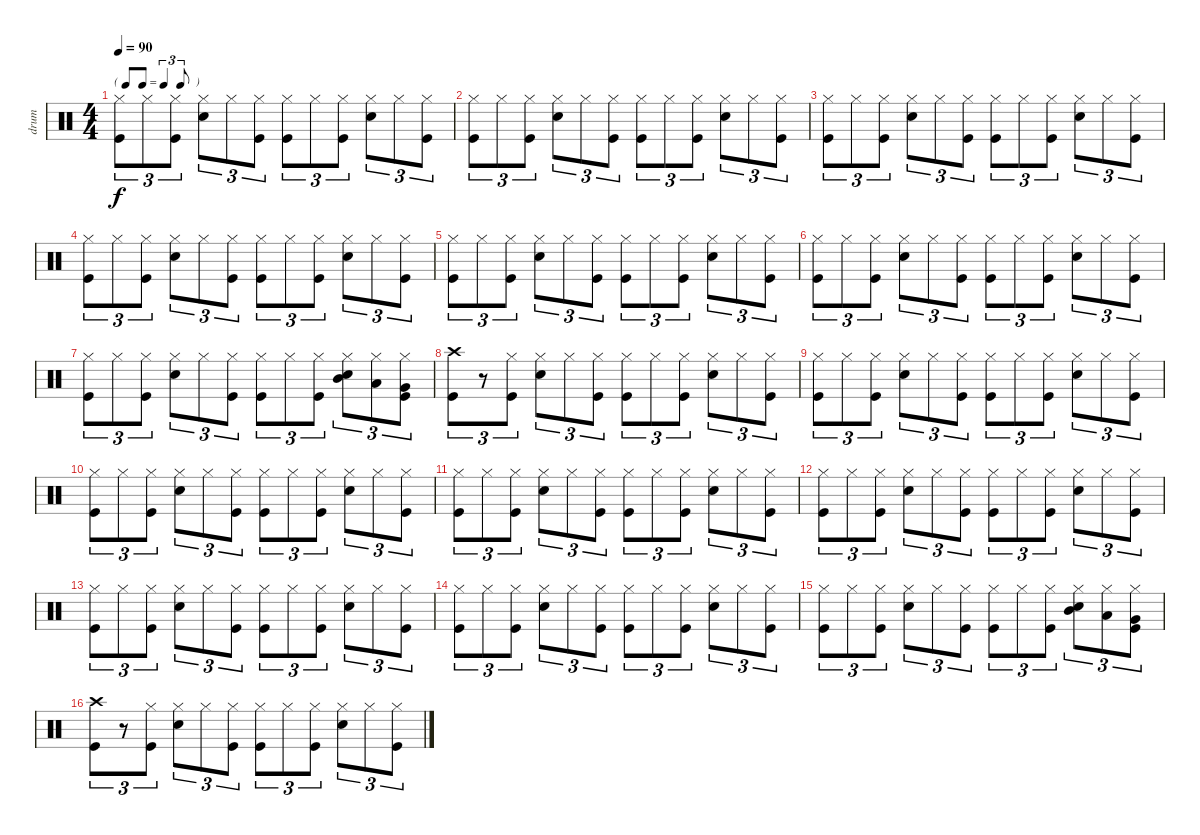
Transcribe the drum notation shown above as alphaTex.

\track ("drum" "drum") {instrument percussion}
\staff {score}
\articulation defaults
\ts (4 4)
\tf triplet8th
\tempo 90
\clef neutral
\ks c
("Hi-Hat (closed)" "Kick (hit)").8{tu (3 2) dy f} "Hi-Hat (closed)".8{tu (3 2)} ("Hi-Hat (closed)" "Kick (hit)").8{tu (3 2)} ("Hi-Hat (closed)" "Snare (hit) 2").8{tu (3 2)} "Hi-Hat (closed)".8{tu (3 2)} ("Hi-Hat (closed)" "Kick (hit)").8{tu (3 2)} ("Hi-Hat (closed)" "Kick (hit)").8{tu (3 2)} "Hi-Hat (closed)".8{tu (3 2)} ("Hi-Hat (closed)" "Kick (hit)").8{tu (3 2)} ("Hi-Hat (closed)" "Snare (hit) 2").8{tu (3 2)} "Hi-Hat (closed)".8{tu (3 2)} ("Hi-Hat (closed)" "Kick (hit)").8{tu (3 2)} |
("Hi-Hat (closed)" "Kick (hit)").8{tu (3 2)} "Hi-Hat (closed)".8{tu (3 2)} ("Hi-Hat (closed)" "Kick (hit)").8{tu (3 2)} ("Hi-Hat (closed)" "Snare (hit) 2").8{tu (3 2)} "Hi-Hat (closed)".8{tu (3 2)} ("Hi-Hat (closed)" "Kick (hit)").8{tu (3 2)} ("Hi-Hat (closed)" "Kick (hit)").8{tu (3 2)} "Hi-Hat (closed)".8{tu (3 2)} ("Hi-Hat (closed)" "Kick (hit)").8{tu (3 2)} ("Hi-Hat (closed)" "Snare (hit) 2").8{tu (3 2)} "Hi-Hat (closed)".8{tu (3 2)} ("Hi-Hat (closed)" "Kick (hit)").8{tu (3 2)} |
("Hi-Hat (closed)" "Kick (hit)").8{tu (3 2)} "Hi-Hat (closed)".8{tu (3 2)} ("Hi-Hat (closed)" "Kick (hit)").8{tu (3 2)} ("Hi-Hat (closed)" "Snare (hit) 2").8{tu (3 2)} "Hi-Hat (closed)".8{tu (3 2)} ("Hi-Hat (closed)" "Kick (hit)").8{tu (3 2)} ("Hi-Hat (closed)" "Kick (hit)").8{tu (3 2)} "Hi-Hat (closed)".8{tu (3 2)} ("Hi-Hat (closed)" "Kick (hit)").8{tu (3 2)} ("Hi-Hat (closed)" "Snare (hit) 2").8{tu (3 2)} "Hi-Hat (closed)".8{tu (3 2)} ("Hi-Hat (closed)" "Kick (hit)").8{tu (3 2)} |
("Hi-Hat (closed)" "Kick (hit)").8{tu (3 2)} "Hi-Hat (closed)".8{tu (3 2)} ("Hi-Hat (closed)" "Kick (hit)").8{tu (3 2)} ("Hi-Hat (closed)" "Snare (hit) 2").8{tu (3 2)} "Hi-Hat (closed)".8{tu (3 2)} ("Hi-Hat (closed)" "Kick (hit)").8{tu (3 2)} ("Hi-Hat (closed)" "Kick (hit)").8{tu (3 2)} "Hi-Hat (closed)".8{tu (3 2)} ("Hi-Hat (closed)" "Kick (hit)").8{tu (3 2)} ("Hi-Hat (closed)" "Snare (hit) 2").8{tu (3 2)} "Hi-Hat (closed)".8{tu (3 2)} ("Hi-Hat (closed)" "Kick (hit)").8{tu (3 2)} |
("Hi-Hat (closed)" "Kick (hit)").8{tu (3 2)} "Hi-Hat (closed)".8{tu (3 2)} ("Hi-Hat (closed)" "Kick (hit)").8{tu (3 2)} ("Hi-Hat (closed)" "Snare (hit) 2").8{tu (3 2)} "Hi-Hat (closed)".8{tu (3 2)} ("Hi-Hat (closed)" "Kick (hit)").8{tu (3 2)} ("Hi-Hat (closed)" "Kick (hit)").8{tu (3 2)} "Hi-Hat (closed)".8{tu (3 2)} ("Hi-Hat (closed)" "Kick (hit)").8{tu (3 2)} ("Hi-Hat (closed)" "Snare (hit) 2").8{tu (3 2)} "Hi-Hat (closed)".8{tu (3 2)} ("Hi-Hat (closed)" "Kick (hit)").8{tu (3 2)} |
("Hi-Hat (closed)" "Kick (hit)").8{tu (3 2)} "Hi-Hat (closed)".8{tu (3 2)} ("Hi-Hat (closed)" "Kick (hit)").8{tu (3 2)} ("Hi-Hat (closed)" "Snare (hit) 2").8{tu (3 2)} "Hi-Hat (closed)".8{tu (3 2)} ("Hi-Hat (closed)" "Kick (hit)").8{tu (3 2)} ("Hi-Hat (closed)" "Kick (hit)").8{tu (3 2)} "Hi-Hat (closed)".8{tu (3 2)} ("Hi-Hat (closed)" "Kick (hit)").8{tu (3 2)} ("Hi-Hat (closed)" "Snare (hit) 2").8{tu (3 2)} "Hi-Hat (closed)".8{tu (3 2)} ("Hi-Hat (closed)" "Kick (hit)").8{tu (3 2)} |
("Hi-Hat (closed)" "Kick (hit)").8{tu (3 2)} "Hi-Hat (closed)".8{tu (3 2)} ("Hi-Hat (closed)" "Kick (hit)").8{tu (3 2)} ("Hi-Hat (closed)" "Snare (hit) 2").8{tu (3 2)} "Hi-Hat (closed)".8{tu (3 2)} ("Hi-Hat (closed)" "Kick (hit)").8{tu (3 2)} ("Hi-Hat (closed)" "Kick (hit)").8{tu (3 2)} "Hi-Hat (closed)".8{tu (3 2)} ("Hi-Hat (closed)" "Kick (hit)").8{tu (3 2)} ("Hi-Hat (closed)" "Mid Tom (hit)" "Snare (hit) 2").8{tu (3 2)} ("Hi-Hat (closed)" "Low Tom (hit)").8{tu (3 2)} ("Hi-Hat (closed)" "Very Low Tom (hit)" "Kick (hit)").8{tu (3 2)} |
("Crash high (hit)" "Kick (hit)").8{tu (3 2)} r.8{tu (3 2)} ("Hi-Hat (closed)" "Kick (hit)").8{tu (3 2)} ("Hi-Hat (closed)" "Snare (hit) 2").8{tu (3 2)} "Hi-Hat (closed)".8{tu (3 2)} ("Hi-Hat (closed)" "Kick (hit)").8{tu (3 2)} ("Hi-Hat (closed)" "Kick (hit)").8{tu (3 2)} "Hi-Hat (closed)".8{tu (3 2)} ("Hi-Hat (closed)" "Kick (hit)").8{tu (3 2)} ("Hi-Hat (closed)" "Snare (hit) 2").8{tu (3 2)} "Hi-Hat (closed)".8{tu (3 2)} ("Hi-Hat (closed)" "Kick (hit)").8{tu (3 2)} |
("Hi-Hat (closed)" "Kick (hit)").8{tu (3 2)} "Hi-Hat (closed)".8{tu (3 2)} ("Hi-Hat (closed)" "Kick (hit)").8{tu (3 2)} ("Hi-Hat (closed)" "Snare (hit) 2").8{tu (3 2)} "Hi-Hat (closed)".8{tu (3 2)} ("Hi-Hat (closed)" "Kick (hit)").8{tu (3 2)} ("Hi-Hat (closed)" "Kick (hit)").8{tu (3 2)} "Hi-Hat (closed)".8{tu (3 2)} ("Hi-Hat (closed)" "Kick (hit)").8{tu (3 2)} ("Hi-Hat (closed)" "Snare (hit) 2").8{tu (3 2)} "Hi-Hat (closed)".8{tu (3 2)} ("Hi-Hat (closed)" "Kick (hit)").8{tu (3 2)} |
("Hi-Hat (closed)" "Kick (hit)").8{tu (3 2)} "Hi-Hat (closed)".8{tu (3 2)} ("Hi-Hat (closed)" "Kick (hit)").8{tu (3 2)} ("Hi-Hat (closed)" "Snare (hit) 2").8{tu (3 2)} "Hi-Hat (closed)".8{tu (3 2)} ("Hi-Hat (closed)" "Kick (hit)").8{tu (3 2)} ("Hi-Hat (closed)" "Kick (hit)").8{tu (3 2)} "Hi-Hat (closed)".8{tu (3 2)} ("Hi-Hat (closed)" "Kick (hit)").8{tu (3 2)} ("Hi-Hat (closed)" "Snare (hit) 2").8{tu (3 2)} "Hi-Hat (closed)".8{tu (3 2)} ("Hi-Hat (closed)" "Kick (hit)").8{tu (3 2)} |
("Hi-Hat (closed)" "Kick (hit)").8{tu (3 2)} "Hi-Hat (closed)".8{tu (3 2)} ("Hi-Hat (closed)" "Kick (hit)").8{tu (3 2)} ("Hi-Hat (closed)" "Snare (hit) 2").8{tu (3 2)} "Hi-Hat (closed)".8{tu (3 2)} ("Hi-Hat (closed)" "Kick (hit)").8{tu (3 2)} ("Hi-Hat (closed)" "Kick (hit)").8{tu (3 2)} "Hi-Hat (closed)".8{tu (3 2)} ("Hi-Hat (closed)" "Kick (hit)").8{tu (3 2)} ("Hi-Hat (closed)" "Snare (hit) 2").8{tu (3 2)} "Hi-Hat (closed)".8{tu (3 2)} ("Hi-Hat (closed)" "Kick (hit)").8{tu (3 2)} |
("Hi-Hat (closed)" "Kick (hit)").8{tu (3 2)} "Hi-Hat (closed)".8{tu (3 2)} ("Hi-Hat (closed)" "Kick (hit)").8{tu (3 2)} ("Hi-Hat (closed)" "Snare (hit) 2").8{tu (3 2)} "Hi-Hat (closed)".8{tu (3 2)} ("Hi-Hat (closed)" "Kick (hit)").8{tu (3 2)} ("Hi-Hat (closed)" "Kick (hit)").8{tu (3 2)} "Hi-Hat (closed)".8{tu (3 2)} ("Hi-Hat (closed)" "Kick (hit)").8{tu (3 2)} ("Hi-Hat (closed)" "Snare (hit) 2").8{tu (3 2)} "Hi-Hat (closed)".8{tu (3 2)} ("Hi-Hat (closed)" "Kick (hit)").8{tu (3 2)} |
("Hi-Hat (closed)" "Kick (hit)").8{tu (3 2)} "Hi-Hat (closed)".8{tu (3 2)} ("Hi-Hat (closed)" "Kick (hit)").8{tu (3 2)} ("Hi-Hat (closed)" "Snare (hit) 2").8{tu (3 2)} "Hi-Hat (closed)".8{tu (3 2)} ("Hi-Hat (closed)" "Kick (hit)").8{tu (3 2)} ("Hi-Hat (closed)" "Kick (hit)").8{tu (3 2)} "Hi-Hat (closed)".8{tu (3 2)} ("Hi-Hat (closed)" "Kick (hit)").8{tu (3 2)} ("Hi-Hat (closed)" "Snare (hit) 2").8{tu (3 2)} "Hi-Hat (closed)".8{tu (3 2)} ("Hi-Hat (closed)" "Kick (hit)").8{tu (3 2)} |
("Hi-Hat (closed)" "Kick (hit)").8{tu (3 2)} "Hi-Hat (closed)".8{tu (3 2)} ("Hi-Hat (closed)" "Kick (hit)").8{tu (3 2)} ("Hi-Hat (closed)" "Snare (hit) 2").8{tu (3 2)} "Hi-Hat (closed)".8{tu (3 2)} ("Hi-Hat (closed)" "Kick (hit)").8{tu (3 2)} ("Hi-Hat (closed)" "Kick (hit)").8{tu (3 2)} "Hi-Hat (closed)".8{tu (3 2)} ("Hi-Hat (closed)" "Kick (hit)").8{tu (3 2)} ("Hi-Hat (closed)" "Snare (hit) 2").8{tu (3 2)} "Hi-Hat (closed)".8{tu (3 2)} ("Hi-Hat (closed)" "Kick (hit)").8{tu (3 2)} |
("Hi-Hat (closed)" "Kick (hit)").8{tu (3 2)} "Hi-Hat (closed)".8{tu (3 2)} ("Hi-Hat (closed)" "Kick (hit)").8{tu (3 2)} ("Hi-Hat (closed)" "Snare (hit) 2").8{tu (3 2)} "Hi-Hat (closed)".8{tu (3 2)} ("Hi-Hat (closed)" "Kick (hit)").8{tu (3 2)} ("Hi-Hat (closed)" "Kick (hit)").8{tu (3 2) volume 10} "Hi-Hat (closed)".8{tu (3 2)} ("Hi-Hat (closed)" "Kick (hit)").8{tu (3 2)} ("Hi-Hat (closed)" "Mid Tom (hit)" "Snare (hit) 2").8{tu (3 2) volume 9} ("Hi-Hat (closed)" "Low Tom (hit)").8{tu (3 2)} ("Hi-Hat (closed)" "Very Low Tom (hit)" "Kick (hit)").8{tu (3 2)} |
("Crash high (hit)" "Kick (hit)").8{tu (3 2) volume 8} r.8{tu (3 2)} ("Hi-Hat (closed)" "Kick (hit)").8{tu (3 2)} ("Hi-Hat (closed)" "Snare (hit) 2").8{tu (3 2) volume 7} "Hi-Hat (closed)".8{tu (3 2)} ("Hi-Hat (closed)" "Kick (hit)").8{tu (3 2)} ("Hi-Hat (closed)" "Kick (hit)").8{tu (3 2) volume 6} "Hi-Hat (closed)".8{tu (3 2)} ("Hi-Hat (closed)" "Kick (hit)").8{tu (3 2)} ("Hi-Hat (closed)" "Snare (hit) 2").8{tu (3 2)} "Hi-Hat (closed)".8{tu (3 2)} ("Hi-Hat (closed)" "Kick (hit)").8{tu (3 2)}
